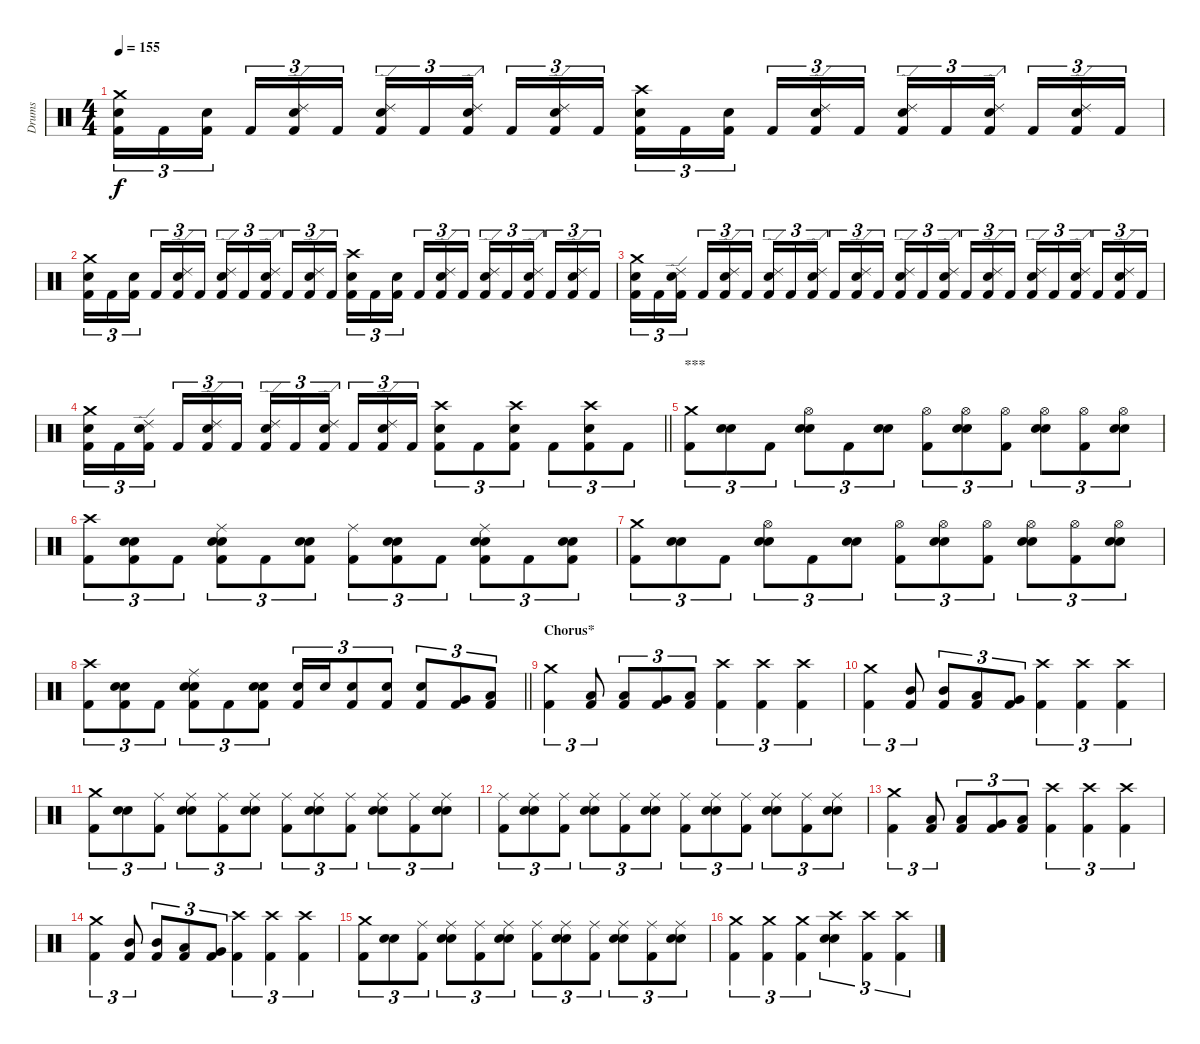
\track ("Drums" "Drums") {instrument percussion}
\staff {score}
\articulation defaults
\ts (4 4)
\tempo 155
\clef neutral
\ks c
("Crash medium (hit)" "Electric Snare (hit)" "Kick (hit) 2").16{tu (3 2) dy f} "Kick (hit) 2".16{tu (3 2)} ("Electric Snare (hit)" "Kick (hit) 2").16{tu (3 2) beam splitsecondary} "Kick (hit) 2".16{tu (3 2)} ("Ride (edge) 2" "Electric Snare (hit)" "Kick (hit) 2").16{tu (3 2)} "Kick (hit) 2".16{tu (3 2)} ("Ride (edge) 2" "Electric Snare (hit)" "Kick (hit) 2").16{tu (3 2)} "Kick (hit) 2".16{tu (3 2)} ("Ride (edge) 2" "Electric Snare (hit)" "Kick (hit) 2").16{tu (3 2) beam splitsecondary} "Kick (hit) 2".16{tu (3 2)} ("Ride (edge) 2" "Electric Snare (hit)" "Kick (hit) 2").16{tu (3 2)} "Kick (hit) 2".16{tu (3 2)} ("Crash high (hit)" "Electric Snare (hit)" "Kick (hit) 2").16{tu (3 2)} "Kick (hit) 2".16{tu (3 2)} ("Electric Snare (hit)" "Kick (hit) 2").16{tu (3 2) beam splitsecondary} "Kick (hit) 2".16{tu (3 2)} ("Ride (edge) 2" "Electric Snare (hit)" "Kick (hit) 2").16{tu (3 2)} "Kick (hit) 2".16{tu (3 2)} ("Ride (edge) 2" "Electric Snare (hit)" "Kick (hit) 2").16{tu (3 2)} "Kick (hit) 2".16{tu (3 2)} ("Ride (edge) 2" "Electric Snare (hit)" "Kick (hit) 2").16{tu (3 2) beam splitsecondary} "Kick (hit) 2".16{tu (3 2)} ("Ride (edge) 2" "Electric Snare (hit)" "Kick (hit) 2").16{tu (3 2)} "Kick (hit) 2".16{tu (3 2)} |
("Crash medium (hit)" "Electric Snare (hit)" "Kick (hit) 2").16{tu (3 2)} "Kick (hit) 2".16{tu (3 2)} ("Electric Snare (hit)" "Kick (hit) 2").16{tu (3 2) beam splitsecondary} "Kick (hit) 2".16{tu (3 2)} ("Ride (edge) 2" "Electric Snare (hit)" "Kick (hit) 2").16{tu (3 2)} "Kick (hit) 2".16{tu (3 2)} ("Ride (edge) 2" "Electric Snare (hit)" "Kick (hit) 2").16{tu (3 2)} "Kick (hit) 2".16{tu (3 2)} ("Ride (edge) 2" "Electric Snare (hit)" "Kick (hit) 2").16{tu (3 2) beam splitsecondary} "Kick (hit) 2".16{tu (3 2)} ("Ride (edge) 2" "Electric Snare (hit)" "Kick (hit) 2").16{tu (3 2)} "Kick (hit) 2".16{tu (3 2)} ("Crash high (hit)" "Electric Snare (hit)" "Kick (hit) 2").16{tu (3 2)} "Kick (hit) 2".16{tu (3 2)} ("Electric Snare (hit)" "Kick (hit) 2").16{tu (3 2) beam splitsecondary} "Kick (hit) 2".16{tu (3 2)} ("Ride (edge) 2" "Electric Snare (hit)" "Kick (hit) 2").16{tu (3 2)} "Kick (hit) 2".16{tu (3 2)} ("Ride (edge) 2" "Electric Snare (hit)" "Kick (hit) 2").16{tu (3 2)} "Kick (hit) 2".16{tu (3 2)} ("Ride (edge) 2" "Electric Snare (hit)" "Kick (hit) 2").16{tu (3 2) beam splitsecondary} "Kick (hit) 2".16{tu (3 2)} ("Ride (edge) 2" "Electric Snare (hit)" "Kick (hit) 2").16{tu (3 2)} "Kick (hit) 2".16{tu (3 2)} |
("Crash medium (hit)" "Electric Snare (hit)" "Kick (hit) 2").16{tu (3 2)} "Kick (hit) 2".16{tu (3 2)} ("Ride (edge) 2" "Electric Snare (hit)" "Kick (hit) 2").16{tu (3 2) beam splitsecondary} "Kick (hit) 2".16{tu (3 2)} ("Ride (edge) 2" "Electric Snare (hit)" "Kick (hit) 2").16{tu (3 2)} "Kick (hit) 2".16{tu (3 2)} ("Ride (edge) 2" "Electric Snare (hit)" "Kick (hit) 2").16{tu (3 2)} "Kick (hit) 2".16{tu (3 2)} ("Ride (edge) 2" "Electric Snare (hit)" "Kick (hit) 2").16{tu (3 2) beam splitsecondary} "Kick (hit) 2".16{tu (3 2)} ("Ride (edge) 2" "Electric Snare (hit)" "Kick (hit) 2").16{tu (3 2)} "Kick (hit) 2".16{tu (3 2)} ("Ride (edge) 2" "Electric Snare (hit)" "Kick (hit) 2").16{tu (3 2)} "Kick (hit) 2".16{tu (3 2)} ("Ride (edge) 2" "Electric Snare (hit)" "Kick (hit) 2").16{tu (3 2) beam splitsecondary} "Kick (hit) 2".16{tu (3 2)} ("Ride (edge) 2" "Electric Snare (hit)" "Kick (hit) 2").16{tu (3 2)} "Kick (hit) 2".16{tu (3 2)} ("Ride (edge) 2" "Electric Snare (hit)" "Kick (hit) 2").16{tu (3 2)} "Kick (hit) 2".16{tu (3 2)} ("Ride (edge) 2" "Electric Snare (hit)" "Kick (hit) 2").16{tu (3 2) beam splitsecondary} "Kick (hit) 2".16{tu (3 2)} ("Ride (edge) 2" "Electric Snare (hit)" "Kick (hit) 2").16{tu (3 2)} "Kick (hit) 2".16{tu (3 2)} |
\barLineRight lightlight
("Crash medium (hit)" "Electric Snare (hit)" "Kick (hit) 2").16{tu (3 2)} "Kick (hit) 2".16{tu (3 2)} ("Ride (edge) 2" "Electric Snare (hit)" "Kick (hit) 2").16{tu (3 2) beam splitsecondary} "Kick (hit) 2".16{tu (3 2)} ("Ride (edge) 2" "Electric Snare (hit)" "Kick (hit) 2").16{tu (3 2)} "Kick (hit) 2".16{tu (3 2)} ("Ride (edge) 2" "Electric Snare (hit)" "Kick (hit) 2").16{tu (3 2)} "Kick (hit) 2".16{tu (3 2)} ("Ride (edge) 2" "Electric Snare (hit)" "Kick (hit) 2").16{tu (3 2) beam splitsecondary} "Kick (hit) 2".16{tu (3 2)} ("Ride (edge) 2" "Electric Snare (hit)" "Kick (hit) 2").16{tu (3 2)} "Kick (hit) 2".16{tu (3 2)} ("Crash high (hit)" "Electric Snare (hit)" "Kick (hit) 2").8{tu (3 2)} "Kick (hit) 2".8{tu (3 2)} ("Crash high (hit)" "Electric Snare (hit)" "Kick (hit) 2").8{tu (3 2)} "Kick (hit) 2".8{tu (3 2)} ("Crash high (hit)" "Electric Snare (hit)" "Kick (hit) 2").8{tu (3 2)} "Kick (hit) 2".8{tu (3 2)} |
\section ("" "***")
("Crash medium (hit)" "Kick (hit) 2").8{tu (3 2)} ("Electric Snare (hit)" "Electric Snare (hit)").8{tu (3 2)} "Kick (hit) 2".8{tu (3 2)} ("Hi-Hat (open)" "Electric Snare (hit)" "Electric Snare (hit)").8{tu (3 2)} "Kick (hit) 2".8{tu (3 2)} ("Electric Snare (hit)" "Electric Snare (hit)").8{tu (3 2)} ("Hi-Hat (open)" "Kick (hit) 2").8{tu (3 2)} ("Hi-Hat (open)" "Electric Snare (hit)" "Electric Snare (hit)").8{tu (3 2)} ("Hi-Hat (open)" "Kick (hit) 2").8{tu (3 2)} ("Hi-Hat (open)" "Electric Snare (hit)" "Electric Snare (hit)").8{tu (3 2)} ("Hi-Hat (open)" "Kick (hit) 2").8{tu (3 2)} ("Hi-Hat (open)" "Electric Snare (hit)" "Electric Snare (hit)").8{tu (3 2)} |
("Crash high (hit)" "Kick (hit) 2").8{tu (3 2)} ("Electric Snare (hit)" "Electric Snare (hit)" "Kick (hit) 2").8{tu (3 2)} "Kick (hit) 2".8{tu (3 2)} ("Ride (middle)" "Electric Snare (hit)" "Electric Snare (hit)" "Kick (hit) 2").8{tu (3 2)} "Kick (hit) 2".8{tu (3 2)} ("Electric Snare (hit)" "Electric Snare (hit)" "Kick (hit) 2").8{tu (3 2)} ("Ride (middle)" "Kick (hit) 2").8{tu (3 2)} ("Electric Snare (hit)" "Electric Snare (hit)" "Kick (hit) 2").8{tu (3 2)} "Kick (hit) 2".8{tu (3 2)} ("Ride (middle)" "Electric Snare (hit)" "Electric Snare (hit)" "Kick (hit) 2").8{tu (3 2)} "Kick (hit) 2".8{tu (3 2)} ("Electric Snare (hit)" "Electric Snare (hit)" "Kick (hit) 2").8{tu (3 2)} |
("Crash medium (hit)" "Kick (hit) 2").8{tu (3 2)} ("Electric Snare (hit)" "Electric Snare (hit)").8{tu (3 2)} "Kick (hit) 2".8{tu (3 2)} ("Hi-Hat (open)" "Electric Snare (hit)" "Electric Snare (hit)").8{tu (3 2)} "Kick (hit) 2".8{tu (3 2)} ("Electric Snare (hit)" "Electric Snare (hit)").8{tu (3 2)} ("Hi-Hat (open)" "Kick (hit) 2").8{tu (3 2)} ("Hi-Hat (open)" "Electric Snare (hit)" "Electric Snare (hit)").8{tu (3 2)} ("Hi-Hat (open)" "Kick (hit) 2").8{tu (3 2)} ("Hi-Hat (open)" "Electric Snare (hit)" "Electric Snare (hit)").8{tu (3 2)} ("Hi-Hat (open)" "Kick (hit) 2").8{tu (3 2)} ("Hi-Hat (open)" "Electric Snare (hit)" "Electric Snare (hit)").8{tu (3 2)} |
\barLineRight lightlight
("Crash high (hit)" "Kick (hit) 2").8{tu (3 2)} ("Electric Snare (hit)" "Electric Snare (hit)" "Kick (hit) 2").8{tu (3 2)} "Kick (hit) 2".8{tu (3 2)} ("Ride (middle)" "Electric Snare (hit)" "Electric Snare (hit)" "Kick (hit) 2").8{tu (3 2)} "Kick (hit) 2".8{tu (3 2)} ("Electric Snare (hit)" "Electric Snare (hit)" "Kick (hit) 2").8{tu (3 2)} ("Electric Snare (hit)" "Kick (hit) 2").16{tu (3 2)} "Electric Snare (hit)".16{tu (3 2)} ("Electric Snare (hit)" "Kick (hit) 2").8{tu (3 2)} ("Electric Snare (hit)" "Kick (hit) 2").8{tu (3 2)} ("Electric Snare (hit)" "Kick (hit) 2").8{tu (3 2)} ("Very Low Tom (hit)" "Kick (hit) 2").8{tu (3 2)} ("Low Floor Tom (hit)" "Kick (hit) 2").8{tu (3 2)} |
\section ("" "Chorus*")
("Crash medium (hit)" "Kick (hit) 2").4{tu (3 2)} ("Low Tom (hit)" "Kick (hit) 2").8{tu (3 2)} ("Low Tom (hit)" "Kick (hit) 2").8{tu (3 2)} ("Very Low Tom (hit)" "Kick (hit) 2").8{tu (3 2)} ("Low Floor Tom (hit)" "Kick (hit) 2").8{tu (3 2)} ("Crash high (hit)" "Kick (hit) 2").4{tu (3 2)} ("Crash high (hit)" "Kick (hit) 2").4{tu (3 2)} ("Crash high (hit)" "Kick (hit) 2").4{tu (3 2)} |
("Crash medium (hit)" "Kick (hit) 2").4{tu (3 2)} ("Mid Tom (hit)" "Kick (hit) 2").8{tu (3 2)} ("Mid Tom (hit)" "Kick (hit) 2").8{tu (3 2)} ("Low Tom (hit)" "Kick (hit) 2").8{tu (3 2)} ("Very Low Tom (hit)" "Kick (hit) 2").8{tu (3 2)} ("Crash high (hit)" "Kick (hit) 2").4{tu (3 2)} ("Crash high (hit)" "Kick (hit) 2").4{tu (3 2)} ("Crash high (hit)" "Kick (hit) 2").4{tu (3 2)} |
("Crash medium (hit)" "Kick (hit) 2").8{tu (3 2)} ("Electric Snare (hit)" "Electric Snare (hit)").8{tu (3 2)} ("Ride (middle)" "Kick (hit) 2").8{tu (3 2)} ("Ride (middle)" "Electric Snare (hit)" "Electric Snare (hit)").8{tu (3 2)} ("Ride (middle)" "Kick (hit) 2").8{tu (3 2)} ("Ride (middle)" "Electric Snare (hit)" "Electric Snare (hit)").8{tu (3 2)} ("Ride (middle)" "Kick (hit) 2").8{tu (3 2)} ("Ride (middle)" "Electric Snare (hit)" "Electric Snare (hit)").8{tu (3 2)} ("Ride (middle)" "Kick (hit) 2").8{tu (3 2)} ("Ride (middle)" "Electric Snare (hit)" "Electric Snare (hit)").8{tu (3 2)} ("Ride (middle)" "Kick (hit) 2").8{tu (3 2)} ("Ride (middle)" "Electric Snare (hit)" "Electric Snare (hit)").8{tu (3 2)} |
("Ride (middle)" "Kick (hit) 2").8{tu (3 2)} ("Ride (middle)" "Electric Snare (hit)" "Electric Snare (hit)").8{tu (3 2)} ("Ride (middle)" "Kick (hit) 2").8{tu (3 2)} ("Ride (middle)" "Electric Snare (hit)" "Electric Snare (hit)").8{tu (3 2)} ("Ride (middle)" "Kick (hit) 2").8{tu (3 2)} ("Ride (middle)" "Electric Snare (hit)" "Electric Snare (hit)").8{tu (3 2)} ("Ride (middle)" "Kick (hit) 2").8{tu (3 2)} ("Ride (middle)" "Electric Snare (hit)" "Electric Snare (hit)").8{tu (3 2)} ("Ride (middle)" "Kick (hit) 2").8{tu (3 2)} ("Ride (middle)" "Electric Snare (hit)" "Electric Snare (hit)").8{tu (3 2)} ("Ride (middle)" "Kick (hit) 2").8{tu (3 2)} ("Ride (middle)" "Electric Snare (hit)" "Electric Snare (hit)").8{tu (3 2)} |
("Crash medium (hit)" "Kick (hit) 2").4{tu (3 2)} ("Low Tom (hit)" "Kick (hit) 2").8{tu (3 2)} ("Low Tom (hit)" "Kick (hit) 2").8{tu (3 2)} ("Very Low Tom (hit)" "Kick (hit) 2").8{tu (3 2)} ("Low Floor Tom (hit)" "Kick (hit) 2").8{tu (3 2)} ("Crash high (hit)" "Kick (hit) 2").4{tu (3 2)} ("Crash high (hit)" "Kick (hit) 2").4{tu (3 2)} ("Crash high (hit)" "Kick (hit) 2").4{tu (3 2)} |
("Crash medium (hit)" "Kick (hit) 2").4{tu (3 2)} ("Mid Tom (hit)" "Kick (hit) 2").8{tu (3 2)} ("Mid Tom (hit)" "Kick (hit) 2").8{tu (3 2)} ("Low Tom (hit)" "Kick (hit) 2").8{tu (3 2)} ("Very Low Tom (hit)" "Kick (hit) 2").8{tu (3 2)} ("Crash high (hit)" "Kick (hit) 2").4{tu (3 2)} ("Crash high (hit)" "Kick (hit) 2").4{tu (3 2)} ("Crash high (hit)" "Kick (hit) 2").4{tu (3 2)} |
("Crash medium (hit)" "Kick (hit) 2").8{tu (3 2)} ("Electric Snare (hit)" "Electric Snare (hit)").8{tu (3 2)} ("Ride (middle)" "Kick (hit) 2").8{tu (3 2)} ("Ride (middle)" "Electric Snare (hit)" "Electric Snare (hit)").8{tu (3 2)} ("Ride (middle)" "Kick (hit) 2").8{tu (3 2)} ("Ride (middle)" "Electric Snare (hit)" "Electric Snare (hit)").8{tu (3 2)} ("Ride (middle)" "Kick (hit) 2").8{tu (3 2)} ("Ride (middle)" "Electric Snare (hit)" "Electric Snare (hit)").8{tu (3 2)} ("Ride (middle)" "Kick (hit) 2").8{tu (3 2)} ("Ride (middle)" "Electric Snare (hit)" "Electric Snare (hit)").8{tu (3 2)} ("Ride (middle)" "Kick (hit) 2").8{tu (3 2)} ("Ride (middle)" "Electric Snare (hit)" "Electric Snare (hit)").8{tu (3 2)} |
("Crash medium (hit)" "Kick (hit) 2").4{tu (3 2)} ("Crash medium (hit)" "Kick (hit) 2").4{tu (3 2)} ("Crash medium (hit)" "Kick (hit) 2").4{tu (3 2)} ("Crash high (hit)" "Electric Snare (hit)" "Electric Snare (hit)").4{tu (3 2)} ("Crash high (hit)" "Kick (hit) 2").4{tu (3 2)} ("Crash high (hit)" "Kick (hit) 2").4{tu (3 2)}
